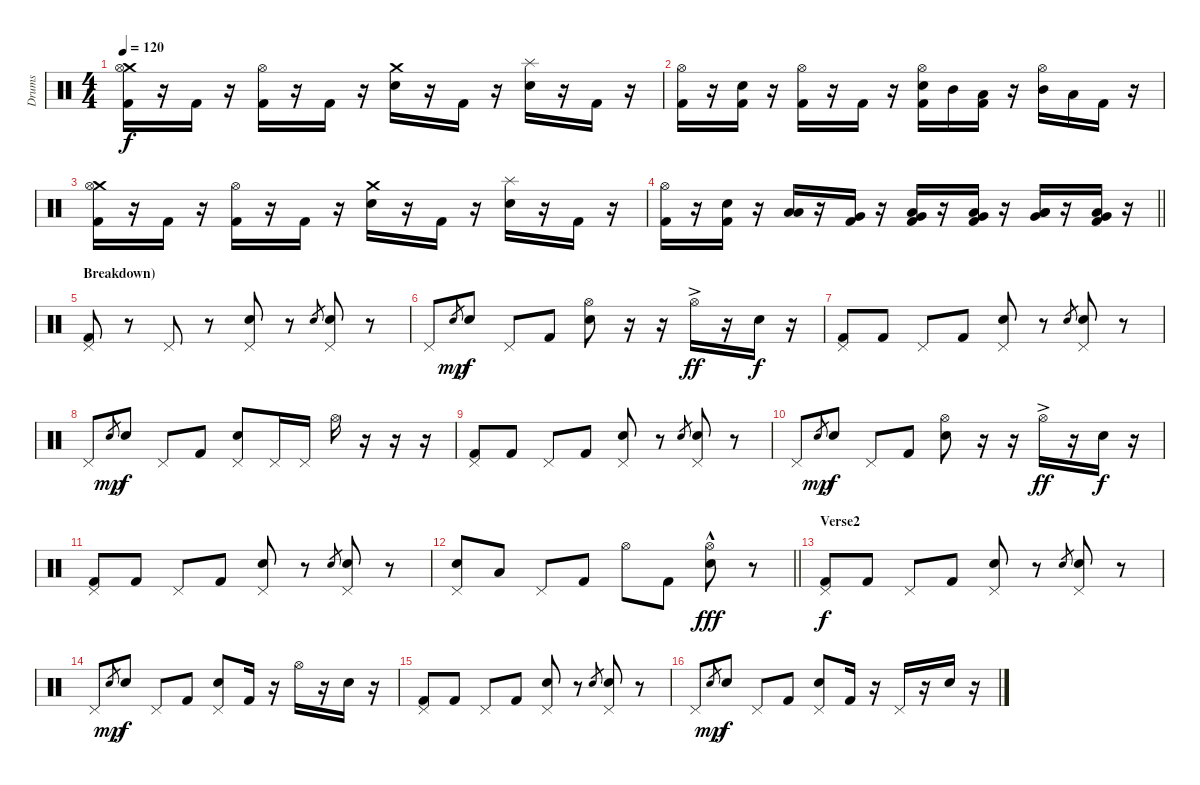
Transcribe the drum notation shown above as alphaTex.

\track ("Drums" "Drums") {instrument percussion}
\staff {score}
\articulation defaults
\ts (4 4)
\tempo 120
\clef neutral
\ks c
("Crash medium (hit)" "Hi-Hat (open)" "Kick (hit) 2").16{dy f} r.16 "Kick (hit) 2".16 r.16 ("Hi-Hat (open)" "Kick (hit) 2").16 r.16 "Kick (hit) 2".16 r.16 ("Snare (hit) 2" "Crash medium (hit)").16 r.16 "Kick (hit) 2".16 r.16 ("Snare (hit) 2" "Splash (hit)").16 r.16 "Kick (hit) 2".16 r.16 |
("Hi-Hat (open)" "Kick (hit) 2").16 r.16 ("Snare (hit) 2" "Kick (hit) 2").16 r.16 ("Hi-Hat (open)" "Kick (hit) 2").16 r.16 "Kick (hit) 2".16 r.16 ("Hi-Hat (open)" "Snare (hit) 2" "Kick (hit) 2").16 "Mid Tom (hit)".16 ("Low Tom (hit)" "Kick (hit) 2").16 r.16 ("Hi-Hat (open)" "Mid Tom (hit)").16 "Low Tom (hit)".16 "Kick (hit) 2".16 r.16 |
("Crash medium (hit)" "Hi-Hat (open)" "Kick (hit) 2").16 r.16 "Kick (hit) 2".16 r.16 ("Hi-Hat (open)" "Kick (hit) 2").16 r.16 "Kick (hit) 2".16 r.16 ("Snare (hit) 2" "Crash medium (hit)").16 r.16 "Kick (hit) 2".16 r.16 ("Snare (hit) 2" "Splash (hit)").16 r.16 "Kick (hit) 2".16 r.16 |
\barLineRight lightlight
("Hi-Hat (open)" "Kick (hit) 2").16 r.16 ("Snare (hit) 2" "Kick (hit) 2").16 r.16 ("Low Floor Tom (hit)" "Low Tom (hit)").16 r.16 ("Very Low Tom (hit)" "Kick (hit) 2").16 r.16 ("Low Floor Tom (hit)" "Very Low Tom (hit)" "Kick (hit) 2").16 r.16 ("Low Floor Tom (hit)" "Very Low Tom (hit)" "Kick (hit) 2").16 r.16 ("Low Floor Tom (hit)" "Very Low Tom (hit)" "Low Tom (hit)").16 r.16 ("Low Floor Tom (hit)" "Very Low Tom (hit)" "Kick (hit) 2").16 r.16 |
\section ("" "Breakdown)")
("Kick (hit) 2" "Pedal Hi-Hat (hit)").8 r.8 "Pedal Hi-Hat (hit)".8 r.8 ("Snare (hit) 2" "Pedal Hi-Hat (hit)").8 r.8 "Snare (hit) 2".8{gr} ("Snare (hit) 2" "Pedal Hi-Hat (hit)").8 r.8 |
"Pedal Hi-Hat (hit)".8 "Electric Snare (hit)".8{gr dy mp} "Snare (hit) 2".8{dy f} "Pedal Hi-Hat (hit)".8 "Kick (hit) 2".8 ("Snare (hit) 2" "Hi-Hat (open)").8 r.16 r.16 "Hi-Hat (open)"{ac}.16{dy ff} r.16 "Snare (hit) 2".16{dy f} r.16 |
("Kick (hit) 2" "Pedal Hi-Hat (hit)").8 "Kick (hit) 2".8 "Pedal Hi-Hat (hit)".8 "Kick (hit) 2".8 ("Snare (hit) 2" "Pedal Hi-Hat (hit)").8 r.8 "Snare (hit) 2".8{gr} ("Snare (hit) 2" "Pedal Hi-Hat (hit)").8 r.8 |
"Pedal Hi-Hat (hit)".8 "Electric Snare (hit)".8{gr dy mp} "Snare (hit) 2".8{dy f} "Pedal Hi-Hat (hit)".8 "Kick (hit) 2".8 ("Snare (hit) 2" "Pedal Hi-Hat (hit)").8 "Pedal Hi-Hat (hit)".16 "Pedal Hi-Hat (hit)".16 "Hi-Hat (open)".16 r.16 r.16 r.16 |
("Kick (hit) 2" "Pedal Hi-Hat (hit)").8 "Kick (hit) 2".8 "Pedal Hi-Hat (hit)".8 "Kick (hit) 2".8 ("Snare (hit) 2" "Pedal Hi-Hat (hit)").8 r.8 "Snare (hit) 2".8{gr} ("Snare (hit) 2" "Pedal Hi-Hat (hit)").8 r.8 |
"Pedal Hi-Hat (hit)".8 "Electric Snare (hit)".8{gr dy mp} "Snare (hit) 2".8{dy f} "Pedal Hi-Hat (hit)".8 "Kick (hit) 2".8 ("Snare (hit) 2" "Hi-Hat (open)").8 r.16 r.16 "Hi-Hat (open)"{ac}.16{dy ff} r.16 "Snare (hit) 2".16{dy f} r.16 |
("Kick (hit) 2" "Pedal Hi-Hat (hit)").8 "Kick (hit) 2".8 "Pedal Hi-Hat (hit)".8 "Kick (hit) 2".8 ("Snare (hit) 2" "Pedal Hi-Hat (hit)").8 r.8 "Snare (hit) 2".8{gr} ("Snare (hit) 2" "Pedal Hi-Hat (hit)").8 r.8 |
\barLineRight lightlight
("Pedal Hi-Hat (hit)" "Snare (hit) 2").8 "Low Tom (hit)".8 "Pedal Hi-Hat (hit)".8 "Kick (hit) 2".8 "Hi-Hat (open)".8 "Kick (hit) 2".8 ("Hi-Hat (open)"{hac} "Snare (hit) 2").8{dy fff} r.8 |
\section ("" "Verse2")
("Kick (hit) 2" "Pedal Hi-Hat (hit)").8{dy f} "Kick (hit) 2".8 "Pedal Hi-Hat (hit)".8 "Kick (hit) 2".8 ("Snare (hit) 2" "Pedal Hi-Hat (hit)").8 r.8 "Snare (hit) 2".8{gr} ("Snare (hit) 2" "Pedal Hi-Hat (hit)").8 r.8 |
"Pedal Hi-Hat (hit)".8 "Electric Snare (hit)".8{gr dy mp} "Snare (hit) 2".8{dy f} "Pedal Hi-Hat (hit)".8 "Kick (hit) 2".8 ("Snare (hit) 2" "Pedal Hi-Hat (hit)").8 "Kick (hit) 2".16 r.16 "Hi-Hat (open)".16 r.16 "Snare (hit) 2".16 r.16 |
("Kick (hit) 2" "Pedal Hi-Hat (hit)").8 "Kick (hit) 2".8 "Pedal Hi-Hat (hit)".8 "Kick (hit) 2".8 ("Snare (hit) 2" "Pedal Hi-Hat (hit)").8 r.8 "Snare (hit) 2".8{gr} ("Snare (hit) 2" "Pedal Hi-Hat (hit)").8 r.8 |
"Pedal Hi-Hat (hit)".8 "Electric Snare (hit)".8{gr dy mp} "Snare (hit) 2".8{dy f} "Pedal Hi-Hat (hit)".8 "Kick (hit) 2".8 ("Snare (hit) 2" "Pedal Hi-Hat (hit)").8 "Kick (hit) 2".16 r.16 "Pedal Hi-Hat (hit)".16 r.16 "Snare (hit) 2".16 r.16
